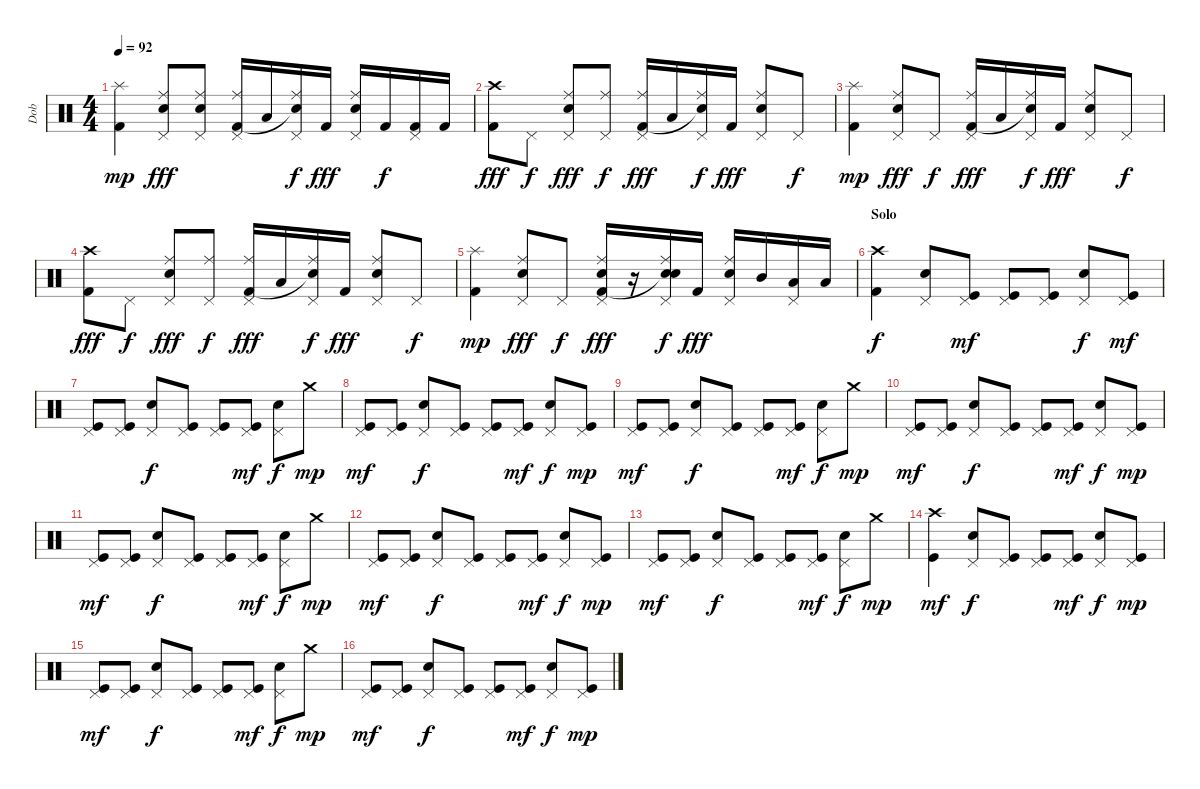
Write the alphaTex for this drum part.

\track ("Dob" "Dob") {instrument percussion}
\staff {score}
\articulation defaults
\ts (4 4)
\tempo 92
\clef neutral
\ks c
("Kick (hit) 2" "Splash (hit)").4{dy mp} ("Electric Snare (hit)" "Ride (middle)" "Pedal Hi-Hat (hit)").8{dy fff} ("Electric Snare (hit)" "Ride (middle)" "Pedal Hi-Hat (hit)").8 ("Ride (middle)" "Kick (hit) 2" "Pedal Hi-Hat (hit)").16 "Low Tom (hit)".16 ("Ride (middle)" "Snare (hit)"{t} "Pedal Hi-Hat (hit)").16{dy f} "Kick (hit) 2".16{dy fff} ("Electric Snare (hit)" "Ride (middle)" "Pedal Hi-Hat (hit)").16 "Kick (hit) 2".16{dy f} ("Kick (hit) 2" "Pedal Hi-Hat (hit)").16 "Kick (hit) 2".16 |
("Kick (hit) 2" "Crash high (hit)").8{dy fff} "Pedal Hi-Hat (hit)".8{dy f} ("Electric Snare (hit)" "Ride (middle)" "Pedal Hi-Hat (hit)").8{dy fff} ("Ride (middle)" "Pedal Hi-Hat (hit)").8{dy f} ("Ride (middle)" "Kick (hit) 2" "Pedal Hi-Hat (hit)").16{dy fff} "Low Tom (hit)".16 ("Ride (middle)" "Snare (hit)"{t} "Pedal Hi-Hat (hit)").16{dy f} "Kick (hit) 2".16{dy fff} ("Electric Snare (hit)" "Ride (middle)" "Pedal Hi-Hat (hit)").8 "Pedal Hi-Hat (hit)".8{dy f} |
("Kick (hit) 2" "Splash (hit)").4{dy mp} ("Electric Snare (hit)" "Ride (middle)" "Pedal Hi-Hat (hit)").8{dy fff} "Pedal Hi-Hat (hit)".8{dy f} ("Ride (middle)" "Kick (hit) 2" "Pedal Hi-Hat (hit)").16{dy fff} "Low Tom (hit)".16 ("Ride (middle)" "Snare (hit)"{t} "Pedal Hi-Hat (hit)").16{dy f} "Kick (hit) 2".16{dy fff} ("Electric Snare (hit)" "Ride (middle)" "Pedal Hi-Hat (hit)").8 "Pedal Hi-Hat (hit)".8{dy f} |
("Kick (hit) 2" "Crash high (hit)").8{dy fff} "Pedal Hi-Hat (hit)".8{dy f} ("Electric Snare (hit)" "Ride (middle)" "Pedal Hi-Hat (hit)").8{dy fff} ("Ride (middle)" "Pedal Hi-Hat (hit)").8{dy f} ("Ride (middle)" "Kick (hit) 2" "Pedal Hi-Hat (hit)").16{dy fff} "Low Tom (hit)".16 ("Ride (middle)" "Snare (hit)"{t} "Pedal Hi-Hat (hit)").16{dy f} "Kick (hit) 2".16{dy fff} ("Electric Snare (hit)" "Ride (middle)" "Pedal Hi-Hat (hit)").8 "Pedal Hi-Hat (hit)".8{dy f} |
("Kick (hit) 2" "Splash (hit)").4{dy mp} ("Electric Snare (hit)" "Ride (middle)" "Pedal Hi-Hat (hit)").8{dy fff} "Pedal Hi-Hat (hit)".8{dy f} ("Electric Snare (hit)" "Ride (middle)" "Kick (hit) 2" "Pedal Hi-Hat (hit)").16{dy fff} r.16 ("Electric Snare (hit)" "Ride (middle)" "Snare (hit)"{t} "Pedal Hi-Hat (hit)").16{dy f} "Kick (hit) 2".16{dy fff} ("Electric Snare (hit)" "Ride (middle)" "Pedal Hi-Hat (hit)").16 "Mid Tom (hit)".16 ("Low Tom (hit)" "Pedal Hi-Hat (hit)").16 "Low Tom (hit)".16 |
\section ("" "Solo")
("Kick (hit) 2" "Crash high (hit)").4{dy f} ("Electric Snare (hit)" "Pedal Hi-Hat (hit)").8 ("Kick (hit)" "Pedal Hi-Hat (hit)").8{dy mf} ("Kick (hit)" "Pedal Hi-Hat (hit)").8 ("Kick (hit)" "Pedal Hi-Hat (hit)").8 ("Electric Snare (hit)" "Pedal Hi-Hat (hit)").8{dy f} ("Kick (hit)" "Pedal Hi-Hat (hit)").8{dy mf} |
("Kick (hit)" "Pedal Hi-Hat (hit)").8 ("Kick (hit)" "Pedal Hi-Hat (hit)").8 ("Electric Snare (hit)" "Pedal Hi-Hat (hit)").8{dy f} ("Kick (hit)" "Pedal Hi-Hat (hit)").8 ("Kick (hit)" "Pedal Hi-Hat (hit)").8 ("Kick (hit)" "Pedal Hi-Hat (hit)").8{dy mf} ("Electric Snare (hit)" "Pedal Hi-Hat (hit)").8{dy f} "Crash medium (hit)".8{dy mp} |
("Kick (hit)" "Pedal Hi-Hat (hit)").8{dy mf} ("Kick (hit)" "Pedal Hi-Hat (hit)").8 ("Electric Snare (hit)" "Pedal Hi-Hat (hit)").8{dy f} ("Kick (hit)" "Pedal Hi-Hat (hit)").8 ("Kick (hit)" "Pedal Hi-Hat (hit)").8 ("Kick (hit)" "Pedal Hi-Hat (hit)").8{dy mf} ("Electric Snare (hit)" "Pedal Hi-Hat (hit)").8{dy f} ("Kick (hit)" "Pedal Hi-Hat (hit)").8{dy mp} |
("Kick (hit)" "Pedal Hi-Hat (hit)").8{dy mf} ("Kick (hit)" "Pedal Hi-Hat (hit)").8 ("Electric Snare (hit)" "Pedal Hi-Hat (hit)").8{dy f} ("Kick (hit)" "Pedal Hi-Hat (hit)").8 ("Kick (hit)" "Pedal Hi-Hat (hit)").8 ("Kick (hit)" "Pedal Hi-Hat (hit)").8{dy mf} ("Electric Snare (hit)" "Pedal Hi-Hat (hit)").8{dy f} "Crash medium (hit)".8{dy mp} |
("Kick (hit)" "Pedal Hi-Hat (hit)").8{dy mf} ("Kick (hit)" "Pedal Hi-Hat (hit)").8 ("Electric Snare (hit)" "Pedal Hi-Hat (hit)").8{dy f} ("Kick (hit)" "Pedal Hi-Hat (hit)").8 ("Kick (hit)" "Pedal Hi-Hat (hit)").8 ("Kick (hit)" "Pedal Hi-Hat (hit)").8{dy mf} ("Electric Snare (hit)" "Pedal Hi-Hat (hit)").8{dy f} ("Kick (hit)" "Pedal Hi-Hat (hit)").8{dy mp} |
("Kick (hit)" "Pedal Hi-Hat (hit)").8{dy mf} ("Kick (hit)" "Pedal Hi-Hat (hit)").8 ("Electric Snare (hit)" "Pedal Hi-Hat (hit)").8{dy f} ("Kick (hit)" "Pedal Hi-Hat (hit)").8 ("Kick (hit)" "Pedal Hi-Hat (hit)").8 ("Kick (hit)" "Pedal Hi-Hat (hit)").8{dy mf} ("Electric Snare (hit)" "Pedal Hi-Hat (hit)").8{dy f} "Crash medium (hit)".8{dy mp} |
("Kick (hit)" "Pedal Hi-Hat (hit)").8{dy mf} ("Kick (hit)" "Pedal Hi-Hat (hit)").8 ("Electric Snare (hit)" "Pedal Hi-Hat (hit)").8{dy f} ("Kick (hit)" "Pedal Hi-Hat (hit)").8 ("Kick (hit)" "Pedal Hi-Hat (hit)").8 ("Kick (hit)" "Pedal Hi-Hat (hit)").8{dy mf} ("Electric Snare (hit)" "Pedal Hi-Hat (hit)").8{dy f} ("Kick (hit)" "Pedal Hi-Hat (hit)").8{dy mp} |
("Kick (hit)" "Pedal Hi-Hat (hit)").8{dy mf} ("Kick (hit)" "Pedal Hi-Hat (hit)").8 ("Electric Snare (hit)" "Pedal Hi-Hat (hit)").8{dy f} ("Kick (hit)" "Pedal Hi-Hat (hit)").8 ("Kick (hit)" "Pedal Hi-Hat (hit)").8 ("Kick (hit)" "Pedal Hi-Hat (hit)").8{dy mf} ("Electric Snare (hit)" "Pedal Hi-Hat (hit)").8{dy f} "Crash medium (hit)".8{dy mp} |
("Kick (hit)" "Crash high (hit)").4{dy mf} ("Electric Snare (hit)" "Pedal Hi-Hat (hit)").8{dy f} ("Kick (hit)" "Pedal Hi-Hat (hit)").8 ("Kick (hit)" "Pedal Hi-Hat (hit)").8 ("Kick (hit)" "Pedal Hi-Hat (hit)").8{dy mf} ("Electric Snare (hit)" "Pedal Hi-Hat (hit)").8{dy f} ("Kick (hit)" "Pedal Hi-Hat (hit)").8{dy mp} |
("Kick (hit)" "Pedal Hi-Hat (hit)").8{dy mf} ("Kick (hit)" "Pedal Hi-Hat (hit)").8 ("Electric Snare (hit)" "Pedal Hi-Hat (hit)").8{dy f} ("Kick (hit)" "Pedal Hi-Hat (hit)").8 ("Kick (hit)" "Pedal Hi-Hat (hit)").8 ("Kick (hit)" "Pedal Hi-Hat (hit)").8{dy mf} ("Electric Snare (hit)" "Pedal Hi-Hat (hit)").8{dy f} "Crash medium (hit)".8{dy mp} |
("Kick (hit)" "Pedal Hi-Hat (hit)").8{dy mf} ("Kick (hit)" "Pedal Hi-Hat (hit)").8 ("Electric Snare (hit)" "Pedal Hi-Hat (hit)").8{dy f} ("Kick (hit)" "Pedal Hi-Hat (hit)").8 ("Kick (hit)" "Pedal Hi-Hat (hit)").8 ("Kick (hit)" "Pedal Hi-Hat (hit)").8{dy mf} ("Electric Snare (hit)" "Pedal Hi-Hat (hit)").8{dy f} ("Kick (hit)" "Pedal Hi-Hat (hit)").8{dy mp}
